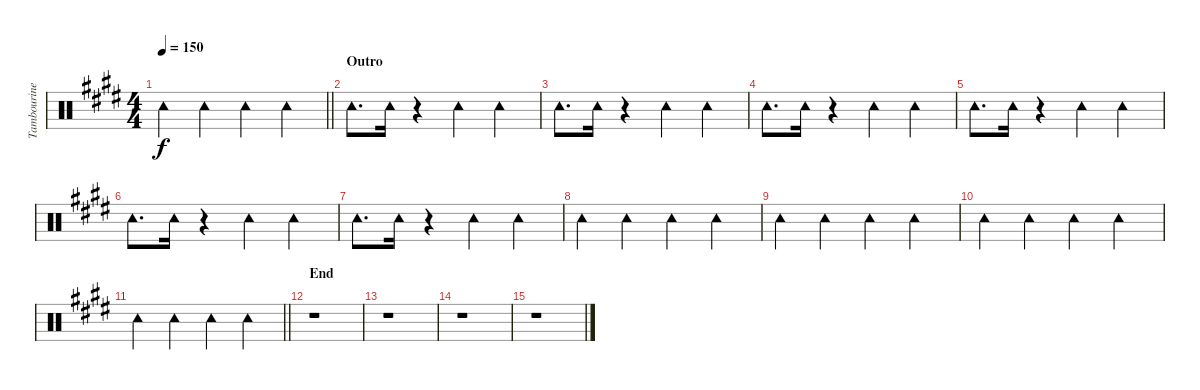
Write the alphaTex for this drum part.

\track ("Tambourine" "Tambourine") {instrument percussion}
\staff {score}
\articulation defaults
\ts (4 4)
\tempo 150
\clef neutral
\barLineRight lightlight
\ks e "Tambourine (hit)".4{dy f} "Tambourine (hit)".4 "Tambourine (hit)".4 "Tambourine (hit)".4
|
\section ("" "Outro")
"Tambourine (hit)".8{d} "Tambourine (hit)".16 r.4 "Tambourine (hit)".4 "Tambourine (hit)".4 |
"Tambourine (hit)".8{d} "Tambourine (hit)".16 r.4 "Tambourine (hit)".4 "Tambourine (hit)".4 |
"Tambourine (hit)".8{d} "Tambourine (hit)".16 r.4 "Tambourine (hit)".4 "Tambourine (hit)".4 |
"Tambourine (hit)".8{d} "Tambourine (hit)".16 r.4 "Tambourine (hit)".4 "Tambourine (hit)".4 |
"Tambourine (hit)".8{d} "Tambourine (hit)".16 r.4 "Tambourine (hit)".4 "Tambourine (hit)".4 |
"Tambourine (hit)".8{d} "Tambourine (hit)".16 r.4 "Tambourine (hit)".4 "Tambourine (hit)".4 |
"Tambourine (hit)".4 "Tambourine (hit)".4 "Tambourine (hit)".4 "Tambourine (hit)".4 |
"Tambourine (hit)".4 "Tambourine (hit)".4 "Tambourine (hit)".4 "Tambourine (hit)".4 |
"Tambourine (hit)".4 "Tambourine (hit)".4 "Tambourine (hit)".4 "Tambourine (hit)".4 |
\barLineRight lightlight "Tambourine (hit)".4 "Tambourine (hit)".4 "Tambourine (hit)".4 "Tambourine (hit)".4
|
\section ("" "End")
r.1 |
r.1 |
r.1 |
r.1
